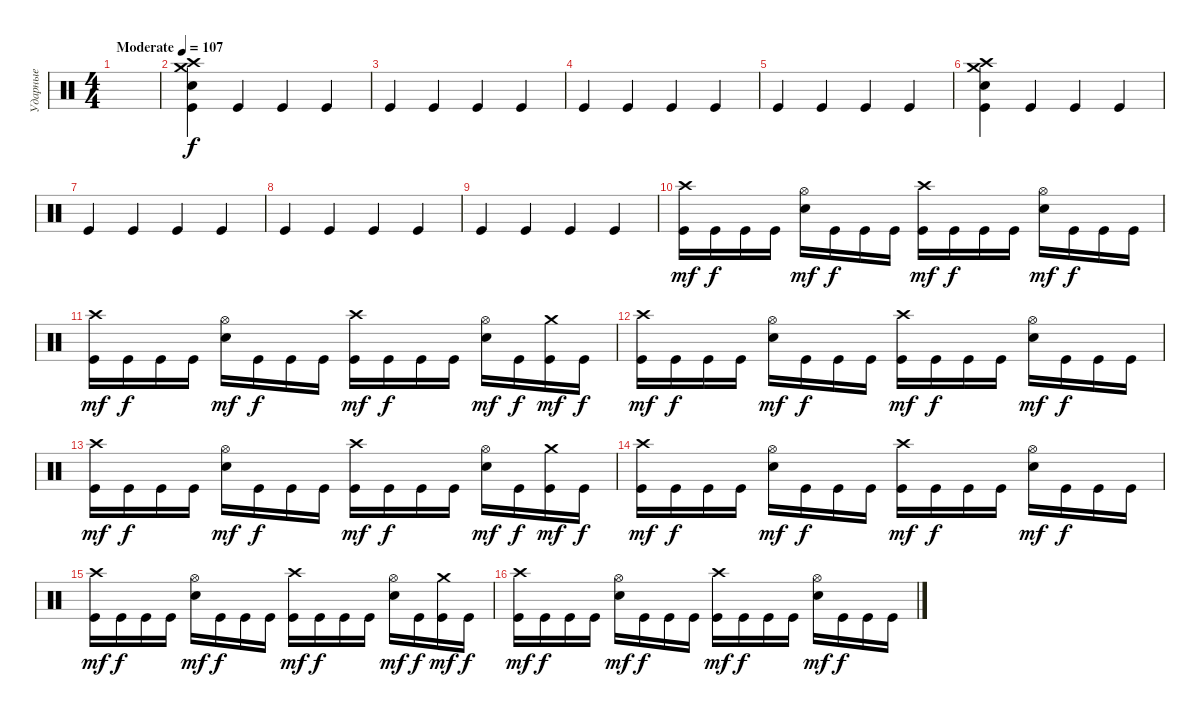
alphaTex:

\track ("Ударные" "Ударные") {instrument percussion}
\staff {score}
\articulation defaults
\ts (4 4)
\tempo (107 "Moderate")
\clef neutral
\ks c
|
("Kick (hit)" "Electric Snare (hit)" "Crash medium (hit)" "Crash high (hit)").4 "Kick (hit)".4 "Kick (hit)".4 "Kick (hit)".4 |
"Kick (hit)".4 "Kick (hit)".4 "Kick (hit)".4 "Kick (hit)".4 |
"Kick (hit)".4 "Kick (hit)".4 "Kick (hit)".4 "Kick (hit)".4 |
"Kick (hit)".4 "Kick (hit)".4 "Kick (hit)".4 "Kick (hit)".4 |
("Kick (hit)" "Electric Snare (hit)" "Crash medium (hit)" "Crash high (hit)").4 "Kick (hit)".4 "Kick (hit)".4 "Kick (hit)".4 |
"Kick (hit)".4 "Kick (hit)".4 "Kick (hit)".4 "Kick (hit)".4 |
"Kick (hit)".4 "Kick (hit)".4 "Kick (hit)".4 "Kick (hit)".4 |
"Kick (hit)".4 "Kick (hit)".4 "Kick (hit)".4 "Kick (hit)".4 |
("Crash high (hit)" "Kick (hit)").16{dy mf} "Kick (hit)".16{dy f} "Kick (hit)".16 "Kick (hit)".16 ("Hi-Hat (open)" "Electric Snare (hit)").16{dy mf} "Kick (hit)".16{dy f} "Kick (hit)".16 "Kick (hit)".16 ("Crash high (hit)" "Kick (hit)").16{dy mf} "Kick (hit)".16{dy f} "Kick (hit)".16 "Kick (hit)".16 ("Hi-Hat (open)" "Electric Snare (hit)").16{dy mf} "Kick (hit)".16{dy f} "Kick (hit)".16 "Kick (hit)".16 |
("Crash high (hit)" "Kick (hit)").16{dy mf} "Kick (hit)".16{dy f} "Kick (hit)".16 "Kick (hit)".16 ("Hi-Hat (open)" "Electric Snare (hit)").16{dy mf} "Kick (hit)".16{dy f} "Kick (hit)".16 "Kick (hit)".16 ("Crash high (hit)" "Kick (hit)").16{dy mf} "Kick (hit)".16{dy f} "Kick (hit)".16 "Kick (hit)".16 ("Hi-Hat (open)" "Electric Snare (hit)").16{dy mf} "Kick (hit)".16{dy f} ("Crash medium (hit)" "Kick (hit)").16{dy mf} "Kick (hit)".16{dy f} |
("Crash high (hit)" "Kick (hit)").16{dy mf} "Kick (hit)".16{dy f} "Kick (hit)".16 "Kick (hit)".16 ("Hi-Hat (open)" "Electric Snare (hit)").16{dy mf} "Kick (hit)".16{dy f} "Kick (hit)".16 "Kick (hit)".16 ("Crash high (hit)" "Kick (hit)").16{dy mf} "Kick (hit)".16{dy f} "Kick (hit)".16 "Kick (hit)".16 ("Hi-Hat (open)" "Electric Snare (hit)").16{dy mf} "Kick (hit)".16{dy f} "Kick (hit)".16 "Kick (hit)".16 |
("Crash high (hit)" "Kick (hit)").16{dy mf} "Kick (hit)".16{dy f} "Kick (hit)".16 "Kick (hit)".16 ("Hi-Hat (open)" "Electric Snare (hit)").16{dy mf} "Kick (hit)".16{dy f} "Kick (hit)".16 "Kick (hit)".16 ("Crash high (hit)" "Kick (hit)").16{dy mf} "Kick (hit)".16{dy f} "Kick (hit)".16 "Kick (hit)".16 ("Hi-Hat (open)" "Electric Snare (hit)").16{dy mf} "Kick (hit)".16{dy f} ("Crash medium (hit)" "Kick (hit)").16{dy mf} "Kick (hit)".16{dy f} |
("Crash high (hit)" "Kick (hit)").16{dy mf} "Kick (hit)".16{dy f} "Kick (hit)".16 "Kick (hit)".16 ("Hi-Hat (open)" "Electric Snare (hit)").16{dy mf} "Kick (hit)".16{dy f} "Kick (hit)".16 "Kick (hit)".16 ("Crash high (hit)" "Kick (hit)").16{dy mf} "Kick (hit)".16{dy f} "Kick (hit)".16 "Kick (hit)".16 ("Hi-Hat (open)" "Electric Snare (hit)").16{dy mf} "Kick (hit)".16{dy f} "Kick (hit)".16 "Kick (hit)".16 |
("Crash high (hit)" "Kick (hit)").16{dy mf} "Kick (hit)".16{dy f} "Kick (hit)".16 "Kick (hit)".16 ("Hi-Hat (open)" "Electric Snare (hit)").16{dy mf} "Kick (hit)".16{dy f} "Kick (hit)".16 "Kick (hit)".16 ("Crash high (hit)" "Kick (hit)").16{dy mf} "Kick (hit)".16{dy f} "Kick (hit)".16 "Kick (hit)".16 ("Hi-Hat (open)" "Electric Snare (hit)").16{dy mf} "Kick (hit)".16{dy f} ("Crash medium (hit)" "Kick (hit)").16{dy mf} "Kick (hit)".16{dy f} |
("Crash high (hit)" "Kick (hit)").16{dy mf} "Kick (hit)".16{dy f} "Kick (hit)".16 "Kick (hit)".16 ("Hi-Hat (open)" "Electric Snare (hit)").16{dy mf} "Kick (hit)".16{dy f} "Kick (hit)".16 "Kick (hit)".16 ("Crash high (hit)" "Kick (hit)").16{dy mf} "Kick (hit)".16{dy f} "Kick (hit)".16 "Kick (hit)".16 ("Hi-Hat (open)" "Electric Snare (hit)").16{dy mf} "Kick (hit)".16{dy f} "Kick (hit)".16 "Kick (hit)".16
